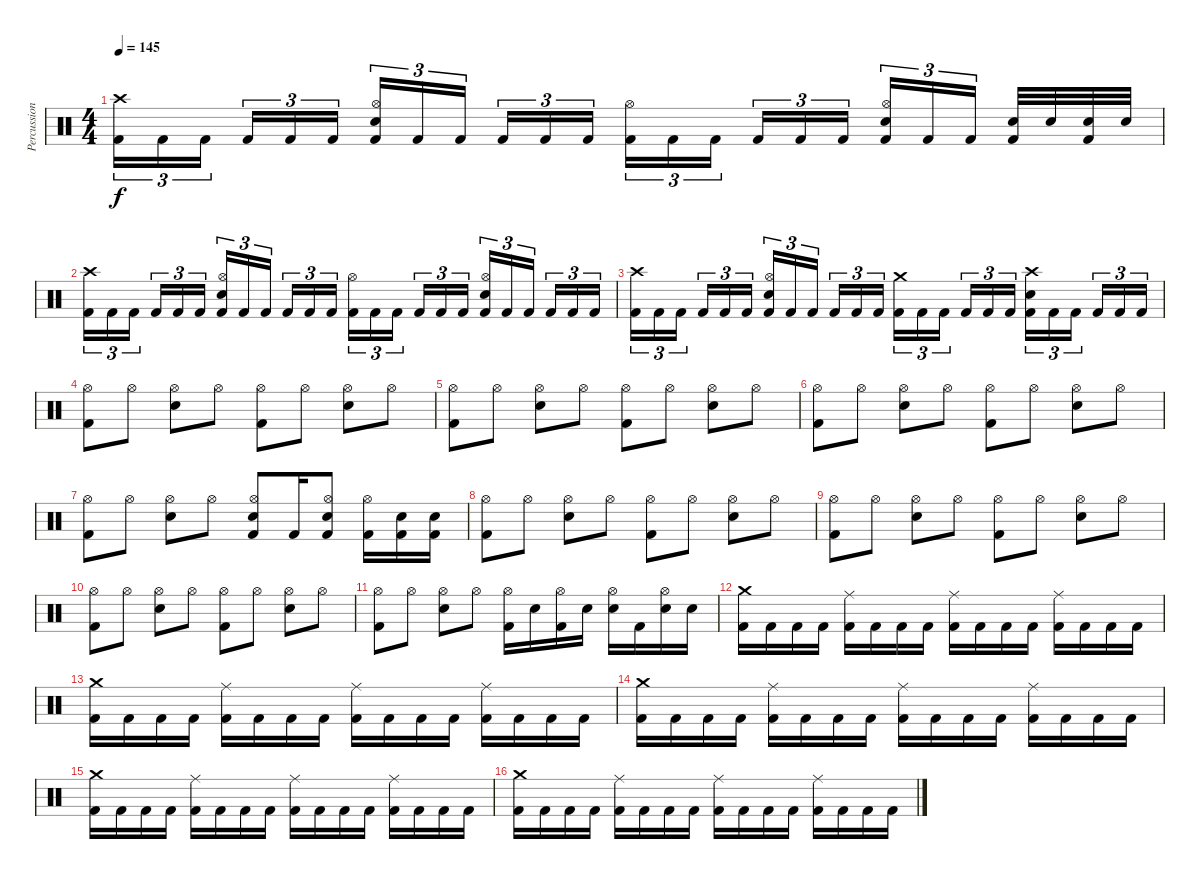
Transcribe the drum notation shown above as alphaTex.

\track ("Percussions" "Percussion") {instrument percussion}
\staff {score}
\articulation defaults
\ts (4 4)
\tempo 145
\clef neutral
\ks c
("Crash high (hit)" "Kick (hit) 2").16{tu (3 2) dy f} "Kick (hit) 2".16{tu (3 2)} "Kick (hit) 2".16{tu (3 2) beam splitsecondary} "Kick (hit) 2".16{tu (3 2)} "Kick (hit) 2".16{tu (3 2)} "Kick (hit) 2".16{tu (3 2)} ("Hi-Hat (open)" "Electric Snare (hit)" "Kick (hit) 2").16{tu (3 2)} "Kick (hit) 2".16{tu (3 2)} "Kick (hit) 2".16{tu (3 2) beam splitsecondary} "Kick (hit) 2".16{tu (3 2)} "Kick (hit) 2".16{tu (3 2)} "Kick (hit) 2".16{tu (3 2)} ("Hi-Hat (open)" "Kick (hit) 2").16{tu (3 2)} "Kick (hit) 2".16{tu (3 2)} "Kick (hit) 2".16{tu (3 2) beam splitsecondary} "Kick (hit) 2".16{tu (3 2)} "Kick (hit) 2".16{tu (3 2)} "Kick (hit) 2".16{tu (3 2)} ("Hi-Hat (open)" "Electric Snare (hit)" "Kick (hit) 2").16{tu (3 2)} "Kick (hit) 2".16{tu (3 2)} "Kick (hit) 2".16{tu (3 2) beam splitsecondary} ("Electric Snare (hit)" "Kick (hit) 2").32 "Electric Snare (hit)".32 ("Electric Snare (hit)" "Kick (hit) 2").32 "Electric Snare (hit)".32 |
("Crash high (hit)" "Kick (hit) 2").16{tu (3 2)} "Kick (hit) 2".16{tu (3 2)} "Kick (hit) 2".16{tu (3 2) beam splitsecondary} "Kick (hit) 2".16{tu (3 2)} "Kick (hit) 2".16{tu (3 2)} "Kick (hit) 2".16{tu (3 2)} ("Hi-Hat (open)" "Electric Snare (hit)" "Kick (hit) 2").16{tu (3 2)} "Kick (hit) 2".16{tu (3 2)} "Kick (hit) 2".16{tu (3 2) beam splitsecondary} "Kick (hit) 2".16{tu (3 2)} "Kick (hit) 2".16{tu (3 2)} "Kick (hit) 2".16{tu (3 2)} ("Hi-Hat (open)" "Kick (hit) 2").16{tu (3 2)} "Kick (hit) 2".16{tu (3 2)} "Kick (hit) 2".16{tu (3 2) beam splitsecondary} "Kick (hit) 2".16{tu (3 2)} "Kick (hit) 2".16{tu (3 2)} "Kick (hit) 2".16{tu (3 2)} ("Hi-Hat (open)" "Electric Snare (hit)" "Kick (hit) 2").16{tu (3 2)} "Kick (hit) 2".16{tu (3 2)} "Kick (hit) 2".16{tu (3 2) beam splitsecondary} "Kick (hit) 2".16{tu (3 2)} "Kick (hit) 2".16{tu (3 2)} "Kick (hit) 2".16{tu (3 2)} |
("Crash high (hit)" "Kick (hit) 2").16{tu (3 2)} "Kick (hit) 2".16{tu (3 2)} "Kick (hit) 2".16{tu (3 2) beam splitsecondary} "Kick (hit) 2".16{tu (3 2)} "Kick (hit) 2".16{tu (3 2)} "Kick (hit) 2".16{tu (3 2)} ("Hi-Hat (open)" "Electric Snare (hit)" "Kick (hit) 2").16{tu (3 2)} "Kick (hit) 2".16{tu (3 2)} "Kick (hit) 2".16{tu (3 2) beam splitsecondary} "Kick (hit) 2".16{tu (3 2)} "Kick (hit) 2".16{tu (3 2)} "Kick (hit) 2".16{tu (3 2)} ("Crash medium (hit)" "Kick (hit) 2").16{tu (3 2)} "Kick (hit) 2".16{tu (3 2)} "Kick (hit) 2".16{tu (3 2) beam splitsecondary} "Kick (hit) 2".16{tu (3 2)} "Kick (hit) 2".16{tu (3 2)} "Kick (hit) 2".16{tu (3 2)} ("Crash high (hit)" "Electric Snare (hit)" "Kick (hit) 2").16{tu (3 2)} "Kick (hit) 2".16{tu (3 2)} "Kick (hit) 2".16{tu (3 2) beam splitsecondary} "Kick (hit) 2".16{tu (3 2)} "Kick (hit) 2".16{tu (3 2)} "Kick (hit) 2".16{tu (3 2)} |
("Hi-Hat (open)" "Kick (hit) 2").8 "Hi-Hat (open)".8 ("Hi-Hat (open)" "Electric Snare (hit)").8 "Hi-Hat (open)".8 ("Hi-Hat (open)" "Kick (hit) 2").8 "Hi-Hat (open)".8 ("Hi-Hat (open)" "Electric Snare (hit)").8 "Hi-Hat (open)".8 |
("Hi-Hat (open)" "Kick (hit) 2").8 "Hi-Hat (open)".8 ("Hi-Hat (open)" "Electric Snare (hit)").8 "Hi-Hat (open)".8 ("Hi-Hat (open)" "Kick (hit) 2").8 "Hi-Hat (open)".8 ("Hi-Hat (open)" "Electric Snare (hit)").8 "Hi-Hat (open)".8 |
("Hi-Hat (open)" "Kick (hit) 2").8 "Hi-Hat (open)".8 ("Hi-Hat (open)" "Electric Snare (hit)").8 "Hi-Hat (open)".8 ("Hi-Hat (open)" "Kick (hit) 2").8 "Hi-Hat (open)".8 ("Hi-Hat (open)" "Electric Snare (hit)").8 "Hi-Hat (open)".8 |
("Hi-Hat (open)" "Kick (hit) 2").8 "Hi-Hat (open)".8 ("Hi-Hat (open)" "Electric Snare (hit)").8 "Hi-Hat (open)".8 ("Hi-Hat (open)" "Electric Snare (hit)" "Kick (hit) 2").8 "Kick (hit) 2".16 ("Hi-Hat (open)" "Electric Snare (hit)" "Kick (hit) 2").8 ("Hi-Hat (open)" "Kick (hit) 2").16 ("Electric Snare (hit)" "Kick (hit) 2").16 ("Electric Snare (hit)" "Kick (hit) 2").16 |
("Hi-Hat (open)" "Kick (hit) 2").8 "Hi-Hat (open)".8 ("Hi-Hat (open)" "Electric Snare (hit)").8 "Hi-Hat (open)".8 ("Hi-Hat (open)" "Kick (hit) 2").8 "Hi-Hat (open)".8 ("Hi-Hat (open)" "Electric Snare (hit)").8 "Hi-Hat (open)".8 |
("Hi-Hat (open)" "Kick (hit) 2").8 "Hi-Hat (open)".8 ("Hi-Hat (open)" "Electric Snare (hit)").8 "Hi-Hat (open)".8 ("Hi-Hat (open)" "Kick (hit) 2").8 "Hi-Hat (open)".8 ("Hi-Hat (open)" "Electric Snare (hit)").8 "Hi-Hat (open)".8 |
("Hi-Hat (open)" "Kick (hit) 2").8 "Hi-Hat (open)".8 ("Hi-Hat (open)" "Electric Snare (hit)").8 "Hi-Hat (open)".8 ("Hi-Hat (open)" "Kick (hit) 2").8 "Hi-Hat (open)".8 ("Hi-Hat (open)" "Electric Snare (hit)").8 "Hi-Hat (open)".8 |
("Hi-Hat (open)" "Kick (hit) 2").8 "Hi-Hat (open)".8 ("Hi-Hat (open)" "Electric Snare (hit)").8 "Hi-Hat (open)".8 ("Hi-Hat (open)" "Kick (hit) 2").16 "Electric Snare (hit)".16 ("Hi-Hat (open)" "Kick (hit) 2").16 "Electric Snare (hit)".16 ("Hi-Hat (open)" "Electric Snare (hit)").16 "Kick (hit) 2".16 ("Hi-Hat (open)" "Electric Snare (hit)").16 "Electric Snare (hit)".16 |
("Crash medium (hit)" "Kick (hit) 2").16 "Kick (hit) 2".16 "Kick (hit) 2".16 "Kick (hit) 2".16 ("Ride (middle)" "Kick (hit) 2").16 "Kick (hit) 2".16 "Kick (hit) 2".16 "Kick (hit) 2".16 ("Ride (middle)" "Kick (hit) 2").16 "Kick (hit) 2".16 "Kick (hit) 2".16 "Kick (hit) 2".16 ("Ride (middle)" "Kick (hit) 2").16 "Kick (hit) 2".16 "Kick (hit) 2".16 "Kick (hit) 2".16 |
("Crash medium (hit)" "Kick (hit) 2").16 "Kick (hit) 2".16 "Kick (hit) 2".16 "Kick (hit) 2".16 ("Ride (middle)" "Kick (hit) 2").16 "Kick (hit) 2".16 "Kick (hit) 2".16 "Kick (hit) 2".16 ("Ride (middle)" "Kick (hit) 2").16 "Kick (hit) 2".16 "Kick (hit) 2".16 "Kick (hit) 2".16 ("Ride (middle)" "Kick (hit) 2").16 "Kick (hit) 2".16 "Kick (hit) 2".16 "Kick (hit) 2".16 |
("Crash medium (hit)" "Kick (hit) 2").16 "Kick (hit) 2".16 "Kick (hit) 2".16 "Kick (hit) 2".16 ("Ride (middle)" "Kick (hit) 2").16 "Kick (hit) 2".16 "Kick (hit) 2".16 "Kick (hit) 2".16 ("Ride (middle)" "Kick (hit) 2").16 "Kick (hit) 2".16 "Kick (hit) 2".16 "Kick (hit) 2".16 ("Ride (middle)" "Kick (hit) 2").16 "Kick (hit) 2".16 "Kick (hit) 2".16 "Kick (hit) 2".16 |
("Crash medium (hit)" "Kick (hit) 2").16 "Kick (hit) 2".16 "Kick (hit) 2".16 "Kick (hit) 2".16 ("Ride (middle)" "Kick (hit) 2").16 "Kick (hit) 2".16 "Kick (hit) 2".16 "Kick (hit) 2".16 ("Ride (middle)" "Kick (hit) 2").16 "Kick (hit) 2".16 "Kick (hit) 2".16 "Kick (hit) 2".16 ("Ride (middle)" "Kick (hit) 2").16 "Kick (hit) 2".16 "Kick (hit) 2".16 "Kick (hit) 2".16 |
("Crash medium (hit)" "Kick (hit) 2").16 "Kick (hit) 2".16 "Kick (hit) 2".16 "Kick (hit) 2".16 ("Ride (middle)" "Kick (hit) 2").16 "Kick (hit) 2".16 "Kick (hit) 2".16 "Kick (hit) 2".16 ("Ride (middle)" "Kick (hit) 2").16 "Kick (hit) 2".16 "Kick (hit) 2".16 "Kick (hit) 2".16 ("Ride (middle)" "Kick (hit) 2").16 "Kick (hit) 2".16 "Kick (hit) 2".16 "Kick (hit) 2".16
